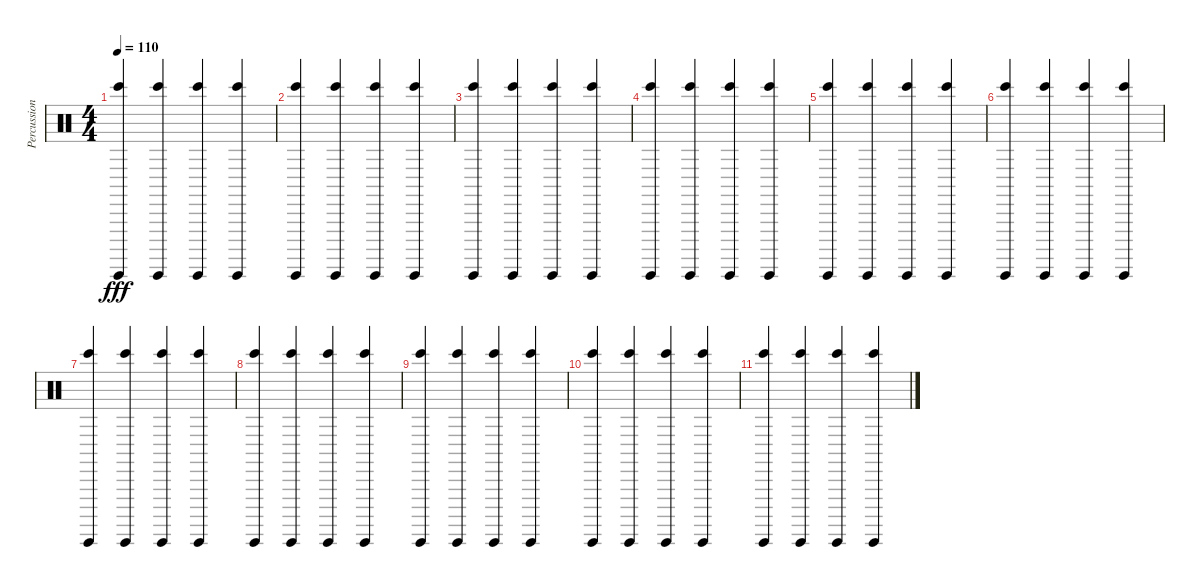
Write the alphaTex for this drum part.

\track ("Percussion" "Percussion") {instrument percussion}
\staff {score}
\articulation defaults
\ts (4 4)
\tempo 110
\clef neutral
\ks c
("Bongo High (hit)" "Guiro (hit)").4{dy fff} ("Bongo High (hit)" "Guiro (hit)").4 ("Bongo High (hit)" "Guiro (hit)").4 ("Bongo High (hit)" "Guiro (hit)").4 |
("Bongo High (hit)" "Guiro (hit)").4 ("Bongo High (hit)" "Guiro (hit)").4 ("Bongo High (hit)" "Guiro (hit)").4 ("Bongo High (hit)" "Guiro (hit)").4 |
("Bongo High (hit)" "Guiro (hit)").4 ("Bongo High (hit)" "Guiro (hit)").4 ("Bongo High (hit)" "Guiro (hit)").4 ("Bongo High (hit)" "Guiro (hit)").4 |
("Bongo High (hit)" "Guiro (hit)").4 ("Bongo High (hit)" "Guiro (hit)").4 ("Bongo High (hit)" "Guiro (hit)").4 ("Bongo High (hit)" "Guiro (hit)").4 |
("Bongo High (hit)" "Guiro (hit)").4 ("Bongo High (hit)" "Guiro (hit)").4 ("Bongo High (hit)" "Guiro (hit)").4 ("Bongo High (hit)" "Guiro (hit)").4 |
("Bongo High (hit)" "Guiro (hit)").4 ("Bongo High (hit)" "Guiro (hit)").4 ("Bongo High (hit)" "Guiro (hit)").4 ("Bongo High (hit)" "Guiro (hit)").4 |
("Bongo High (hit)" "Guiro (hit)").4 ("Bongo High (hit)" "Guiro (hit)").4 ("Bongo High (hit)" "Guiro (hit)").4 ("Bongo High (hit)" "Guiro (hit)").4 |
("Bongo High (hit)" "Guiro (hit)").4 ("Bongo High (hit)" "Guiro (hit)").4 ("Bongo High (hit)" "Guiro (hit)").4 ("Bongo High (hit)" "Guiro (hit)").4 |
("Bongo High (hit)" "Guiro (hit)").4 ("Bongo High (hit)" "Guiro (hit)").4 ("Bongo High (hit)" "Guiro (hit)").4 ("Bongo High (hit)" "Guiro (hit)").4 |
("Bongo High (hit)" "Guiro (hit)").4 ("Bongo High (hit)" "Guiro (hit)").4 ("Bongo High (hit)" "Guiro (hit)").4 ("Bongo High (hit)" "Guiro (hit)").4 |
("Bongo High (hit)" "Guiro (hit)").4 ("Bongo High (hit)" "Guiro (hit)").4 ("Bongo High (hit)" "Guiro (hit)").4 ("Bongo High (hit)" "Guiro (hit)").4
